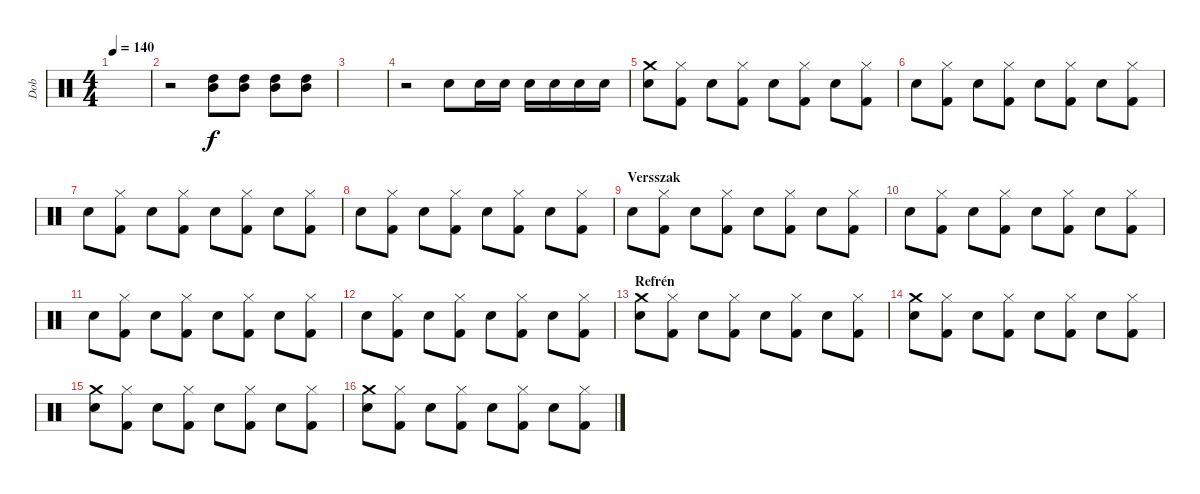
\track ("Dob" "Dob") {instrument percussion}
\staff {score}
\articulation defaults
\ts (4 4)
\tempo 140
\clef neutral
\ks c
|
r.2 ("High Tom (hit)" "Mid Tom (hit)").8 ("High Tom (hit)" "Mid Tom (hit)").8 ("High Tom (hit)" "Mid Tom (hit)").8 ("High Tom (hit)" "Mid Tom (hit)").8 |
|
r.2 "Electric Snare (hit)".8 "Electric Snare (hit)".16 "Electric Snare (hit)".16 "Electric Snare (hit)".16 "Electric Snare (hit)".16 "Electric Snare (hit)".16 "Electric Snare (hit)".16 |
("Electric Snare (hit)" "Crash medium (hit)").8 ("Kick (hit) 2" "Hi-Hat (closed)").8 "Electric Snare (hit)".8 ("Kick (hit) 2" "Hi-Hat (closed)").8 "Electric Snare (hit)".8 ("Kick (hit) 2" "Hi-Hat (closed)").8 "Electric Snare (hit)".8 ("Kick (hit) 2" "Hi-Hat (closed)").8 |
"Electric Snare (hit)".8 ("Kick (hit) 2" "Hi-Hat (closed)").8 "Electric Snare (hit)".8 ("Kick (hit) 2" "Hi-Hat (closed)").8 "Electric Snare (hit)".8 ("Kick (hit) 2" "Hi-Hat (closed)").8 "Electric Snare (hit)".8 ("Kick (hit) 2" "Hi-Hat (closed)").8 |
"Electric Snare (hit)".8 ("Kick (hit) 2" "Hi-Hat (closed)").8 "Electric Snare (hit)".8 ("Kick (hit) 2" "Hi-Hat (closed)").8 "Electric Snare (hit)".8 ("Kick (hit) 2" "Hi-Hat (closed)").8 "Electric Snare (hit)".8 ("Kick (hit) 2" "Hi-Hat (closed)").8 |
"Electric Snare (hit)".8 ("Kick (hit) 2" "Hi-Hat (closed)").8 "Electric Snare (hit)".8 ("Kick (hit) 2" "Hi-Hat (closed)").8 "Electric Snare (hit)".8 ("Kick (hit) 2" "Hi-Hat (closed)").8 "Electric Snare (hit)".8 ("Kick (hit) 2" "Hi-Hat (closed)").8 |
\section ("" "Versszak")
"Electric Snare (hit)".8 ("Kick (hit) 2" "Hi-Hat (closed)").8 "Electric Snare (hit)".8 ("Kick (hit) 2" "Hi-Hat (closed)").8 "Electric Snare (hit)".8 ("Kick (hit) 2" "Hi-Hat (closed)").8 "Electric Snare (hit)".8 ("Kick (hit) 2" "Hi-Hat (closed)").8 |
"Electric Snare (hit)".8 ("Kick (hit) 2" "Hi-Hat (closed)").8 "Electric Snare (hit)".8 ("Kick (hit) 2" "Hi-Hat (closed)").8 "Electric Snare (hit)".8 ("Kick (hit) 2" "Hi-Hat (closed)").8 "Electric Snare (hit)".8 ("Kick (hit) 2" "Hi-Hat (closed)").8 |
"Electric Snare (hit)".8 ("Kick (hit) 2" "Hi-Hat (closed)").8 "Electric Snare (hit)".8 ("Kick (hit) 2" "Hi-Hat (closed)").8 "Electric Snare (hit)".8 ("Kick (hit) 2" "Hi-Hat (closed)").8 "Electric Snare (hit)".8 ("Kick (hit) 2" "Hi-Hat (closed)").8 |
"Electric Snare (hit)".8 ("Kick (hit) 2" "Hi-Hat (closed)").8 "Electric Snare (hit)".8 ("Kick (hit) 2" "Hi-Hat (closed)").8 "Electric Snare (hit)".8 ("Kick (hit) 2" "Hi-Hat (closed)").8 "Electric Snare (hit)".8 ("Kick (hit) 2" "Hi-Hat (closed)").8 |
\section ("" "Refrén")
("Electric Snare (hit)" "Crash medium (hit)").8 ("Kick (hit) 2" "Hi-Hat (closed)").8 "Electric Snare (hit)".8 ("Kick (hit) 2" "Hi-Hat (closed)").8 "Electric Snare (hit)".8 ("Kick (hit) 2" "Hi-Hat (closed)").8 "Electric Snare (hit)".8 ("Kick (hit) 2" "Hi-Hat (closed)").8 |
("Electric Snare (hit)" "Crash medium (hit)").8 ("Kick (hit) 2" "Hi-Hat (closed)").8 "Electric Snare (hit)".8 ("Kick (hit) 2" "Hi-Hat (closed)").8 "Electric Snare (hit)".8 ("Kick (hit) 2" "Hi-Hat (closed)").8 "Electric Snare (hit)".8 ("Kick (hit) 2" "Hi-Hat (closed)").8 |
("Electric Snare (hit)" "Crash medium (hit)").8 ("Kick (hit) 2" "Hi-Hat (closed)").8 "Electric Snare (hit)".8 ("Kick (hit) 2" "Hi-Hat (closed)").8 "Electric Snare (hit)".8 ("Kick (hit) 2" "Hi-Hat (closed)").8 "Electric Snare (hit)".8 ("Kick (hit) 2" "Hi-Hat (closed)").8 |
("Electric Snare (hit)" "Crash medium (hit)").8 ("Kick (hit) 2" "Hi-Hat (closed)").8 "Electric Snare (hit)".8 ("Kick (hit) 2" "Hi-Hat (closed)").8 "Electric Snare (hit)".8 ("Kick (hit) 2" "Hi-Hat (closed)").8 "Electric Snare (hit)".8 ("Kick (hit) 2" "Hi-Hat (closed)").8
